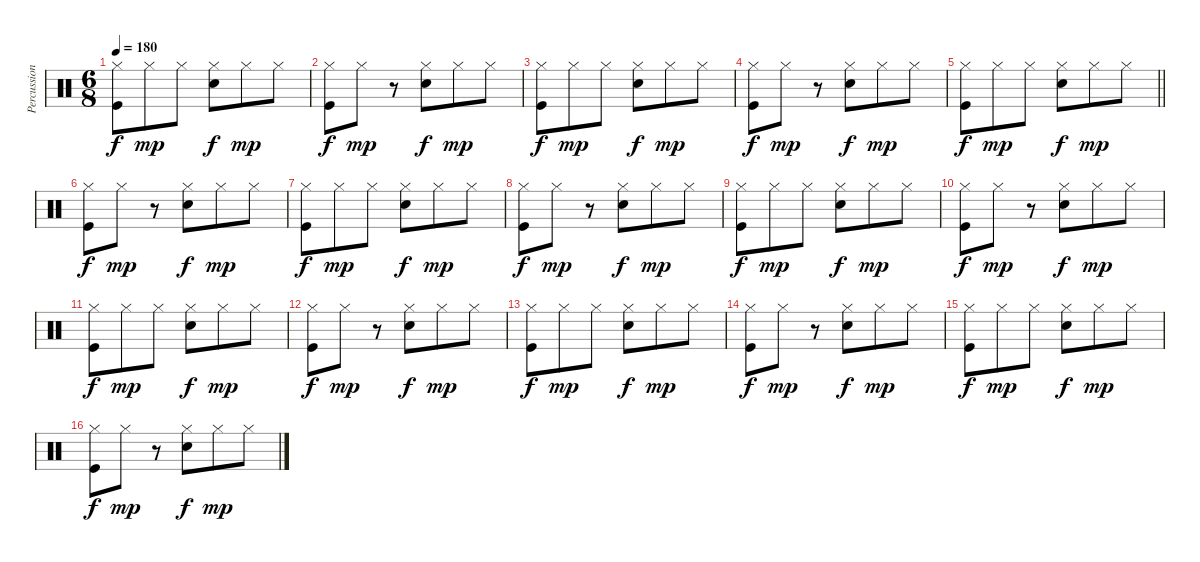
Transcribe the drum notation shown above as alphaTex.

\track ("Percussions" "Percussion") {instrument percussion}
\staff {score}
\articulation defaults
\ts (6 8)
\tempo 180
\clef neutral
\ks c
("Hi-Hat (closed)" "Kick (hit)").8{dy f} "Hi-Hat (closed)".8{dy mp} "Hi-Hat (closed)".8 ("Hi-Hat (closed)" "Snare (hit) 2").8{dy f} "Hi-Hat (closed)".8{dy mp} "Hi-Hat (closed)".8 |
("Hi-Hat (closed)" "Kick (hit)").8{dy f} "Hi-Hat (closed)".8{dy mp} r.8 ("Hi-Hat (closed)" "Snare (hit) 2").8{dy f} "Hi-Hat (closed)".8{dy mp} "Hi-Hat (closed)".8 |
("Hi-Hat (closed)" "Kick (hit)").8{dy f} "Hi-Hat (closed)".8{dy mp} "Hi-Hat (closed)".8 ("Hi-Hat (closed)" "Snare (hit) 2").8{dy f} "Hi-Hat (closed)".8{dy mp} "Hi-Hat (closed)".8 |
("Hi-Hat (closed)" "Kick (hit)").8{dy f} "Hi-Hat (closed)".8{dy mp} r.8 ("Hi-Hat (closed)" "Snare (hit) 2").8{dy f} "Hi-Hat (closed)".8{dy mp} "Hi-Hat (closed)".8 |
\barLineRight lightlight
("Hi-Hat (closed)" "Kick (hit)").8{dy f} "Hi-Hat (closed)".8{dy mp} "Hi-Hat (closed)".8 ("Hi-Hat (closed)" "Snare (hit) 2").8{dy f} "Hi-Hat (closed)".8{dy mp} "Hi-Hat (closed)".8 |
("Hi-Hat (closed)" "Kick (hit)").8{dy f} "Hi-Hat (closed)".8{dy mp} r.8 ("Hi-Hat (closed)" "Snare (hit) 2").8{dy f} "Hi-Hat (closed)".8{dy mp} "Hi-Hat (closed)".8 |
("Hi-Hat (closed)" "Kick (hit)").8{dy f} "Hi-Hat (closed)".8{dy mp} "Hi-Hat (closed)".8 ("Hi-Hat (closed)" "Snare (hit) 2").8{dy f} "Hi-Hat (closed)".8{dy mp} "Hi-Hat (closed)".8 |
("Hi-Hat (closed)" "Kick (hit)").8{dy f} "Hi-Hat (closed)".8{dy mp} r.8 ("Hi-Hat (closed)" "Snare (hit) 2").8{dy f} "Hi-Hat (closed)".8{dy mp} "Hi-Hat (closed)".8 |
("Hi-Hat (closed)" "Kick (hit)").8{dy f} "Hi-Hat (closed)".8{dy mp} "Hi-Hat (closed)".8 ("Hi-Hat (closed)" "Snare (hit) 2").8{dy f} "Hi-Hat (closed)".8{dy mp} "Hi-Hat (closed)".8 |
("Hi-Hat (closed)" "Kick (hit)").8{dy f} "Hi-Hat (closed)".8{dy mp} r.8 ("Hi-Hat (closed)" "Snare (hit) 2").8{dy f} "Hi-Hat (closed)".8{dy mp} "Hi-Hat (closed)".8 |
("Hi-Hat (closed)" "Kick (hit)").8{dy f} "Hi-Hat (closed)".8{dy mp} "Hi-Hat (closed)".8 ("Hi-Hat (closed)" "Snare (hit) 2").8{dy f} "Hi-Hat (closed)".8{dy mp} "Hi-Hat (closed)".8 |
("Hi-Hat (closed)" "Kick (hit)").8{dy f} "Hi-Hat (closed)".8{dy mp} r.8 ("Hi-Hat (closed)" "Snare (hit) 2").8{dy f} "Hi-Hat (closed)".8{dy mp} "Hi-Hat (closed)".8 |
("Hi-Hat (closed)" "Kick (hit)").8{dy f} "Hi-Hat (closed)".8{dy mp} "Hi-Hat (closed)".8 ("Hi-Hat (closed)" "Snare (hit) 2").8{dy f} "Hi-Hat (closed)".8{dy mp} "Hi-Hat (closed)".8 |
("Hi-Hat (closed)" "Kick (hit)").8{dy f} "Hi-Hat (closed)".8{dy mp} r.8 ("Hi-Hat (closed)" "Snare (hit) 2").8{dy f} "Hi-Hat (closed)".8{dy mp} "Hi-Hat (closed)".8 |
("Hi-Hat (closed)" "Kick (hit)").8{dy f} "Hi-Hat (closed)".8{dy mp} "Hi-Hat (closed)".8 ("Hi-Hat (closed)" "Snare (hit) 2").8{dy f} "Hi-Hat (closed)".8{dy mp} "Hi-Hat (closed)".8 |
("Hi-Hat (closed)" "Kick (hit)").8{dy f} "Hi-Hat (closed)".8{dy mp} r.8 ("Hi-Hat (closed)" "Snare (hit) 2").8{dy f} "Hi-Hat (closed)".8{dy mp} "Hi-Hat (closed)".8
